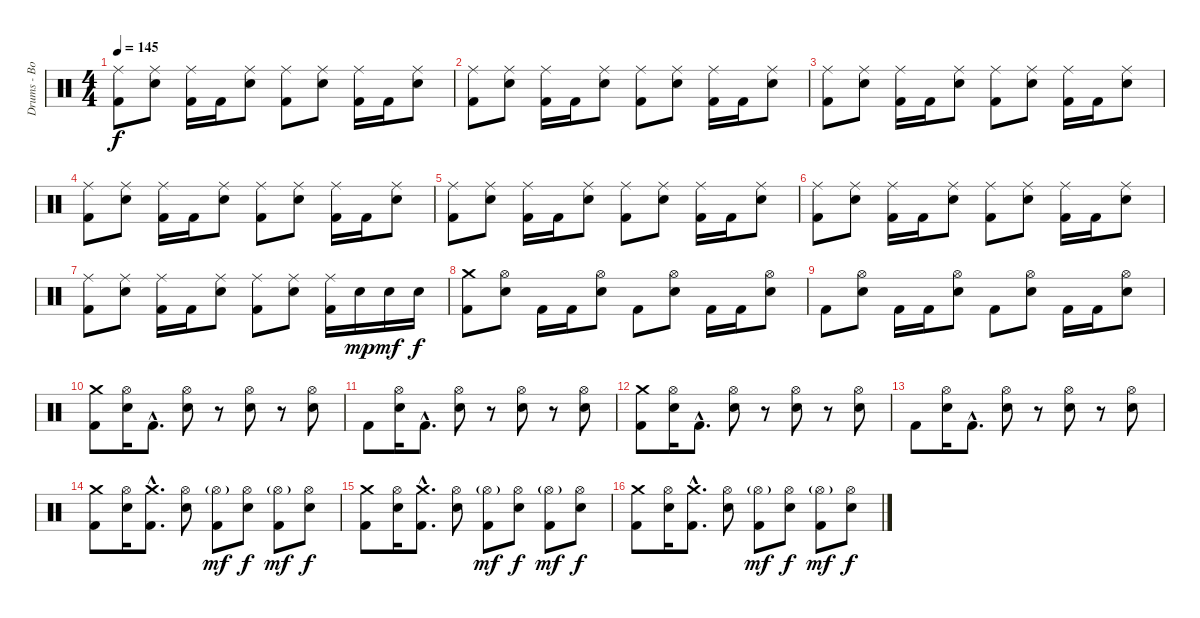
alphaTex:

\track ("Drums - Bobby Schayer" "Drums - Bo") {instrument percussion}
\staff {score}
\articulation defaults
\ts (4 4)
\tempo 145
\clef neutral
\ks c
("Ride (middle)" "Kick (hit) 2").8{dy f} ("Ride (middle)" "Electric Snare (hit)").8 ("Ride (middle)" "Kick (hit) 2").16 "Kick (hit) 2".16 ("Ride (middle)" "Electric Snare (hit)").8 ("Ride (middle)" "Kick (hit) 2").8 ("Ride (middle)" "Electric Snare (hit)").8 ("Ride (middle)" "Kick (hit) 2").16 "Kick (hit) 2".16 ("Ride (middle)" "Electric Snare (hit)").8 |
("Ride (middle)" "Kick (hit) 2").8 ("Ride (middle)" "Electric Snare (hit)").8 ("Ride (middle)" "Kick (hit) 2").16 "Kick (hit) 2".16 ("Ride (middle)" "Electric Snare (hit)").8 ("Ride (middle)" "Kick (hit) 2").8 ("Ride (middle)" "Electric Snare (hit)").8 ("Ride (middle)" "Kick (hit) 2").16 "Kick (hit) 2".16 ("Ride (middle)" "Electric Snare (hit)").8 |
("Ride (middle)" "Kick (hit) 2").8 ("Ride (middle)" "Electric Snare (hit)").8 ("Ride (middle)" "Kick (hit) 2").16 "Kick (hit) 2".16 ("Ride (middle)" "Electric Snare (hit)").8 ("Ride (middle)" "Kick (hit) 2").8 ("Ride (middle)" "Electric Snare (hit)").8 ("Ride (middle)" "Kick (hit) 2").16 "Kick (hit) 2".16 ("Ride (middle)" "Electric Snare (hit)").8 |
("Ride (middle)" "Kick (hit) 2").8 ("Ride (middle)" "Electric Snare (hit)").8 ("Ride (middle)" "Kick (hit) 2").16 "Kick (hit) 2".16 ("Ride (middle)" "Electric Snare (hit)").8 ("Ride (middle)" "Kick (hit) 2").8 ("Ride (middle)" "Electric Snare (hit)").8 ("Ride (middle)" "Kick (hit) 2").16 "Kick (hit) 2".16 ("Ride (middle)" "Electric Snare (hit)").8 |
("Ride (middle)" "Kick (hit) 2").8 ("Ride (middle)" "Electric Snare (hit)").8 ("Ride (middle)" "Kick (hit) 2").16 "Kick (hit) 2".16 ("Ride (middle)" "Electric Snare (hit)").8 ("Ride (middle)" "Kick (hit) 2").8 ("Ride (middle)" "Electric Snare (hit)").8 ("Ride (middle)" "Kick (hit) 2").16 "Kick (hit) 2".16 ("Ride (middle)" "Electric Snare (hit)").8 |
("Ride (middle)" "Kick (hit) 2").8 ("Ride (middle)" "Electric Snare (hit)").8 ("Ride (middle)" "Kick (hit) 2").16 "Kick (hit) 2".16 ("Ride (middle)" "Electric Snare (hit)").8 ("Ride (middle)" "Kick (hit) 2").8 ("Ride (middle)" "Electric Snare (hit)").8 ("Ride (middle)" "Kick (hit) 2").16 "Kick (hit) 2".16 ("Ride (middle)" "Electric Snare (hit)").8 |
("Ride (middle)" "Kick (hit) 2").8 ("Ride (middle)" "Electric Snare (hit)").8 ("Ride (middle)" "Kick (hit) 2").16 "Kick (hit) 2".16 ("Ride (middle)" "Electric Snare (hit)").8 ("Ride (middle)" "Kick (hit) 2").8 ("Ride (middle)" "Electric Snare (hit)").8 ("Ride (middle)" "Kick (hit) 2").16 "Electric Snare (hit)".16{dy mp} "Electric Snare (hit)".16{dy mf} "Electric Snare (hit)".16{dy f} |
("Crash medium (hit)" "Kick (hit) 2").8 ("Hi-Hat (open)" "Electric Snare (hit)").8 "Kick (hit) 2".16 "Kick (hit) 2".16 ("Hi-Hat (open)" "Electric Snare (hit)").8 "Kick (hit) 2".8 ("Hi-Hat (open)" "Electric Snare (hit)").8 "Kick (hit) 2".16 "Kick (hit) 2".16 ("Hi-Hat (open)" "Electric Snare (hit)").8 |
"Kick (hit) 2".8 ("Hi-Hat (open)" "Electric Snare (hit)").8 "Kick (hit) 2".16 "Kick (hit) 2".16 ("Hi-Hat (open)" "Electric Snare (hit)").8 "Kick (hit) 2".8 ("Hi-Hat (open)" "Electric Snare (hit)").8 "Kick (hit) 2".16 "Kick (hit) 2".16 ("Hi-Hat (open)" "Electric Snare (hit)").8 |
("Crash medium (hit)" "Kick (hit) 2").8 ("Hi-Hat (open)" "Electric Snare (hit)").16 "Kick (hit) 2"{hac}.8{d} ("Hi-Hat (open)" "Electric Snare (hit)").8 r.8 ("Hi-Hat (open)" "Electric Snare (hit)").8 r.8 ("Hi-Hat (open)" "Electric Snare (hit)").8 |
"Kick (hit) 2".8 ("Hi-Hat (open)" "Electric Snare (hit)").16 "Kick (hit) 2"{hac}.8{d} ("Hi-Hat (open)" "Electric Snare (hit)").8 r.8 ("Hi-Hat (open)" "Electric Snare (hit)").8 r.8 ("Hi-Hat (open)" "Electric Snare (hit)").8 |
("Crash medium (hit)" "Kick (hit) 2").8 ("Hi-Hat (open)" "Electric Snare (hit)").16 "Kick (hit) 2"{hac}.8{d} ("Hi-Hat (open)" "Electric Snare (hit)").8 r.8 ("Hi-Hat (open)" "Electric Snare (hit)").8 r.8 ("Hi-Hat (open)" "Electric Snare (hit)").8 |
"Kick (hit) 2".8 ("Hi-Hat (open)" "Electric Snare (hit)").16 "Kick (hit) 2"{hac}.8{d} ("Hi-Hat (open)" "Electric Snare (hit)").8 r.8 ("Hi-Hat (open)" "Electric Snare (hit)").8 r.8 ("Hi-Hat (open)" "Electric Snare (hit)").8 |
("Crash medium (hit)" "Kick (hit) 2").8 ("Hi-Hat (open)" "Electric Snare (hit)").16 ("Crash medium (hit)"{hac} "Kick (hit) 2"{hac}).8{d} ("Hi-Hat (open)" "Electric Snare (hit)").8 ("Hi-Hat (open)"{g} "Kick (hit) 2").8{dy mf} ("Hi-Hat (open)" "Electric Snare (hit)").8{dy f} ("Hi-Hat (open)"{g} "Kick (hit) 2").8{dy mf} ("Hi-Hat (open)" "Electric Snare (hit)").8{dy f} |
("Crash medium (hit)" "Kick (hit) 2").8 ("Hi-Hat (open)" "Electric Snare (hit)").16 ("Crash medium (hit)"{hac} "Kick (hit) 2"{hac}).8{d} ("Hi-Hat (open)" "Electric Snare (hit)").8 ("Hi-Hat (open)"{g} "Kick (hit) 2").8{dy mf} ("Hi-Hat (open)" "Electric Snare (hit)").8{dy f} ("Hi-Hat (open)"{g} "Kick (hit) 2").8{dy mf} ("Hi-Hat (open)" "Electric Snare (hit)").8{dy f} |
("Crash medium (hit)" "Kick (hit) 2").8 ("Hi-Hat (open)" "Electric Snare (hit)").16 ("Crash medium (hit)"{hac} "Kick (hit) 2"{hac}).8{d} ("Hi-Hat (open)" "Electric Snare (hit)").8 ("Hi-Hat (open)"{g} "Kick (hit) 2").8{dy mf} ("Hi-Hat (open)" "Electric Snare (hit)").8{dy f} ("Hi-Hat (open)"{g} "Kick (hit) 2").8{dy mf} ("Hi-Hat (open)" "Electric Snare (hit)").8{dy f}
